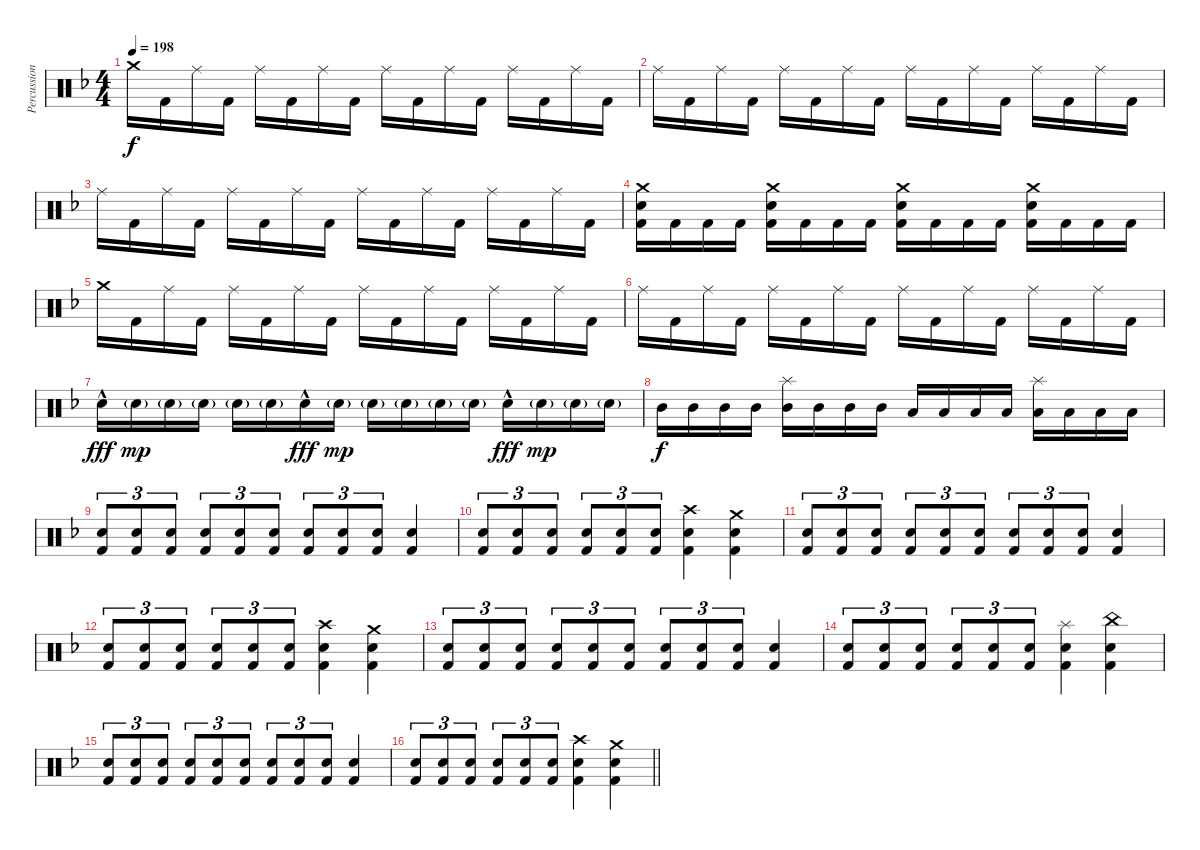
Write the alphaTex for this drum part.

\track ("Percussion" "Percussion") {instrument percussion}
\staff {score}
\articulation defaults
\ts (4 4)
\tempo 198
\clef neutral
\ks dminor "Crash medium (hit)".16{dy f} "Kick (hit) 2".16 "Ride (middle)".16 "Kick (hit) 2".16 "Ride (middle)".16 "Kick (hit) 2".16 "Ride (middle)".16 "Kick (hit) 2".16 "Ride (middle)".16 "Kick (hit) 2".16 "Ride (middle)".16 "Kick (hit) 2".16 "Ride (middle)".16 "Kick (hit) 2".16 "Ride (middle)".16 "Kick (hit) 2".16
|
"Ride (middle)".16 "Kick (hit) 2".16 "Ride (middle)".16 "Kick (hit) 2".16 "Ride (middle)".16 "Kick (hit) 2".16 "Ride (middle)".16 "Kick (hit) 2".16 "Ride (middle)".16 "Kick (hit) 2".16 "Ride (middle)".16 "Kick (hit) 2".16 "Ride (middle)".16 "Kick (hit) 2".16 "Ride (middle)".16 "Kick (hit) 2".16 |
"Ride (middle)".16 "Kick (hit) 2".16 "Ride (middle)".16 "Kick (hit) 2".16 "Ride (middle)".16 "Kick (hit) 2".16 "Ride (middle)".16 "Kick (hit) 2".16 "Ride (middle)".16 "Kick (hit) 2".16 "Ride (middle)".16 "Kick (hit) 2".16 "Ride (middle)".16 "Kick (hit) 2".16 "Ride (middle)".16 "Kick (hit) 2".16 |
("Crash medium (hit)" "Snare (hit) 2" "Kick (hit) 2").16 "Kick (hit) 2".16 "Kick (hit) 2".16 "Kick (hit) 2".16 ("Crash medium (hit)" "Snare (hit) 2" "Kick (hit) 2").16 "Kick (hit) 2".16 "Kick (hit) 2".16 "Kick (hit) 2".16 ("Crash medium (hit)" "Snare (hit) 2" "Kick (hit) 2").16 "Kick (hit) 2".16 "Kick (hit) 2".16 "Kick (hit) 2".16 ("Crash medium (hit)" "Snare (hit) 2" "Kick (hit) 2").16 "Kick (hit) 2".16 "Kick (hit) 2".16 "Kick (hit) 2".16 |
"Crash medium (hit)".16 "Kick (hit) 2".16 "Ride (middle)".16 "Kick (hit) 2".16 "Ride (middle)".16 "Kick (hit) 2".16 "Ride (middle)".16 "Kick (hit) 2".16 "Ride (middle)".16 "Kick (hit) 2".16 "Ride (middle)".16 "Kick (hit) 2".16 "Ride (middle)".16 "Kick (hit) 2".16 "Ride (middle)".16 "Kick (hit) 2".16 |
"Ride (middle)".16 "Kick (hit) 2".16 "Ride (middle)".16 "Kick (hit) 2".16 "Ride (middle)".16 "Kick (hit) 2".16 "Ride (middle)".16 "Kick (hit) 2".16 "Ride (middle)".16 "Kick (hit) 2".16 "Ride (middle)".16 "Kick (hit) 2".16 "Ride (middle)".16 "Kick (hit) 2".16 "Ride (middle)".16 "Kick (hit) 2".16 |
"Snare (hit) 2"{hac}.16{dy fff} "Snare (hit) 2"{g}.16{dy mp} "Snare (hit) 2"{g}.16 "Snare (hit) 2"{g}.16 "Snare (hit) 2"{g}.16 "Snare (hit) 2"{g}.16 "Snare (hit) 2"{hac}.16{dy fff} "Snare (hit) 2"{g}.16{dy mp} "Snare (hit) 2"{g}.16 "Snare (hit) 2"{g}.16 "Snare (hit) 2"{g}.16 "Snare (hit) 2"{g}.16 "Snare (hit) 2"{hac}.16{dy fff} "Snare (hit) 2"{g}.16{dy mp} "Snare (hit) 2"{g}.16 "Snare (hit) 2"{g}.16 |
"Mid Tom (hit)".16{dy f} "Mid Tom (hit)".16 "Mid Tom (hit)".16 "Mid Tom (hit)".16 ("Splash (hit)" "Mid Tom (hit)").16 "Mid Tom (hit)".16 "Mid Tom (hit)".16 "Mid Tom (hit)".16 "Low Tom (hit)".16 "Low Tom (hit)".16 "Low Tom (hit)".16 "Low Tom (hit)".16 ("Splash (hit)" "Low Tom (hit)").16 "Low Tom (hit)".16 "Low Tom (hit)".16 "Low Tom (hit)".16 |
("Snare (hit) 2" "Kick (hit) 2").8{tu (3 2)} ("Snare (hit) 2" "Kick (hit) 2").8{tu (3 2)} ("Snare (hit) 2" "Kick (hit) 2").8{tu (3 2)} ("Snare (hit) 2" "Kick (hit) 2").8{tu (3 2)} ("Snare (hit) 2" "Kick (hit) 2").8{tu (3 2)} ("Snare (hit) 2" "Kick (hit) 2").8{tu (3 2)} ("Snare (hit) 2" "Kick (hit) 2").8{tu (3 2)} ("Snare (hit) 2" "Kick (hit) 2").8{tu (3 2)} ("Snare (hit) 2" "Kick (hit) 2").8{tu (3 2)} ("Snare (hit) 2" "Kick (hit) 2").4 |
("Snare (hit) 2" "Kick (hit) 2").8{tu (3 2)} ("Snare (hit) 2" "Kick (hit) 2").8{tu (3 2)} ("Snare (hit) 2" "Kick (hit) 2").8{tu (3 2)} ("Snare (hit) 2" "Kick (hit) 2").8{tu (3 2)} ("Snare (hit) 2" "Kick (hit) 2").8{tu (3 2)} ("Snare (hit) 2" "Kick (hit) 2").8{tu (3 2)} ("Crash high (hit)" "Snare (hit) 2" "Kick (hit) 2").4 ("Crash medium (hit)" "Snare (hit) 2" "Kick (hit) 2").4 |
("Snare (hit) 2" "Kick (hit) 2").8{tu (3 2)} ("Snare (hit) 2" "Kick (hit) 2").8{tu (3 2)} ("Snare (hit) 2" "Kick (hit) 2").8{tu (3 2)} ("Snare (hit) 2" "Kick (hit) 2").8{tu (3 2)} ("Snare (hit) 2" "Kick (hit) 2").8{tu (3 2)} ("Snare (hit) 2" "Kick (hit) 2").8{tu (3 2)} ("Snare (hit) 2" "Kick (hit) 2").8{tu (3 2)} ("Snare (hit) 2" "Kick (hit) 2").8{tu (3 2)} ("Snare (hit) 2" "Kick (hit) 2").8{tu (3 2)} ("Snare (hit) 2" "Kick (hit) 2").4 |
("Snare (hit) 2" "Kick (hit) 2").8{tu (3 2)} ("Snare (hit) 2" "Kick (hit) 2").8{tu (3 2)} ("Snare (hit) 2" "Kick (hit) 2").8{tu (3 2)} ("Snare (hit) 2" "Kick (hit) 2").8{tu (3 2)} ("Snare (hit) 2" "Kick (hit) 2").8{tu (3 2)} ("Snare (hit) 2" "Kick (hit) 2").8{tu (3 2)} ("Crash high (hit)" "Snare (hit) 2" "Kick (hit) 2").4 ("Crash medium (hit)" "Snare (hit) 2" "Kick (hit) 2").4 |
("Snare (hit) 2" "Kick (hit) 2").8{tu (3 2)} ("Snare (hit) 2" "Kick (hit) 2").8{tu (3 2)} ("Snare (hit) 2" "Kick (hit) 2").8{tu (3 2)} ("Snare (hit) 2" "Kick (hit) 2").8{tu (3 2)} ("Snare (hit) 2" "Kick (hit) 2").8{tu (3 2)} ("Snare (hit) 2" "Kick (hit) 2").8{tu (3 2)} ("Snare (hit) 2" "Kick (hit) 2").8{tu (3 2)} ("Snare (hit) 2" "Kick (hit) 2").8{tu (3 2)} ("Snare (hit) 2" "Kick (hit) 2").8{tu (3 2)} ("Snare (hit) 2" "Kick (hit) 2").4 |
("Snare (hit) 2" "Kick (hit) 2").8{tu (3 2)} ("Snare (hit) 2" "Kick (hit) 2").8{tu (3 2)} ("Snare (hit) 2" "Kick (hit) 2").8{tu (3 2)} ("Snare (hit) 2" "Kick (hit) 2").8{tu (3 2)} ("Snare (hit) 2" "Kick (hit) 2").8{tu (3 2)} ("Snare (hit) 2" "Kick (hit) 2").8{tu (3 2)} ("Splash (hit)" "Snare (hit) 2" "Kick (hit) 2").4 ("China (hit)" "Snare (hit) 2" "Kick (hit) 2").4 |
("Snare (hit) 2" "Kick (hit) 2").8{tu (3 2)} ("Snare (hit) 2" "Kick (hit) 2").8{tu (3 2)} ("Snare (hit) 2" "Kick (hit) 2").8{tu (3 2)} ("Snare (hit) 2" "Kick (hit) 2").8{tu (3 2)} ("Snare (hit) 2" "Kick (hit) 2").8{tu (3 2)} ("Snare (hit) 2" "Kick (hit) 2").8{tu (3 2)} ("Snare (hit) 2" "Kick (hit) 2").8{tu (3 2)} ("Snare (hit) 2" "Kick (hit) 2").8{tu (3 2)} ("Snare (hit) 2" "Kick (hit) 2").8{tu (3 2)} ("Snare (hit) 2" "Kick (hit) 2").4 |
\barLineRight lightlight
("Snare (hit) 2" "Kick (hit) 2").8{tu (3 2)} ("Snare (hit) 2" "Kick (hit) 2").8{tu (3 2)} ("Snare (hit) 2" "Kick (hit) 2").8{tu (3 2)} ("Snare (hit) 2" "Kick (hit) 2").8{tu (3 2)} ("Snare (hit) 2" "Kick (hit) 2").8{tu (3 2)} ("Snare (hit) 2" "Kick (hit) 2").8{tu (3 2)} ("Crash high (hit)" "Snare (hit) 2" "Kick (hit) 2").4 ("Crash medium (hit)" "Snare (hit) 2" "Kick (hit) 2").4
